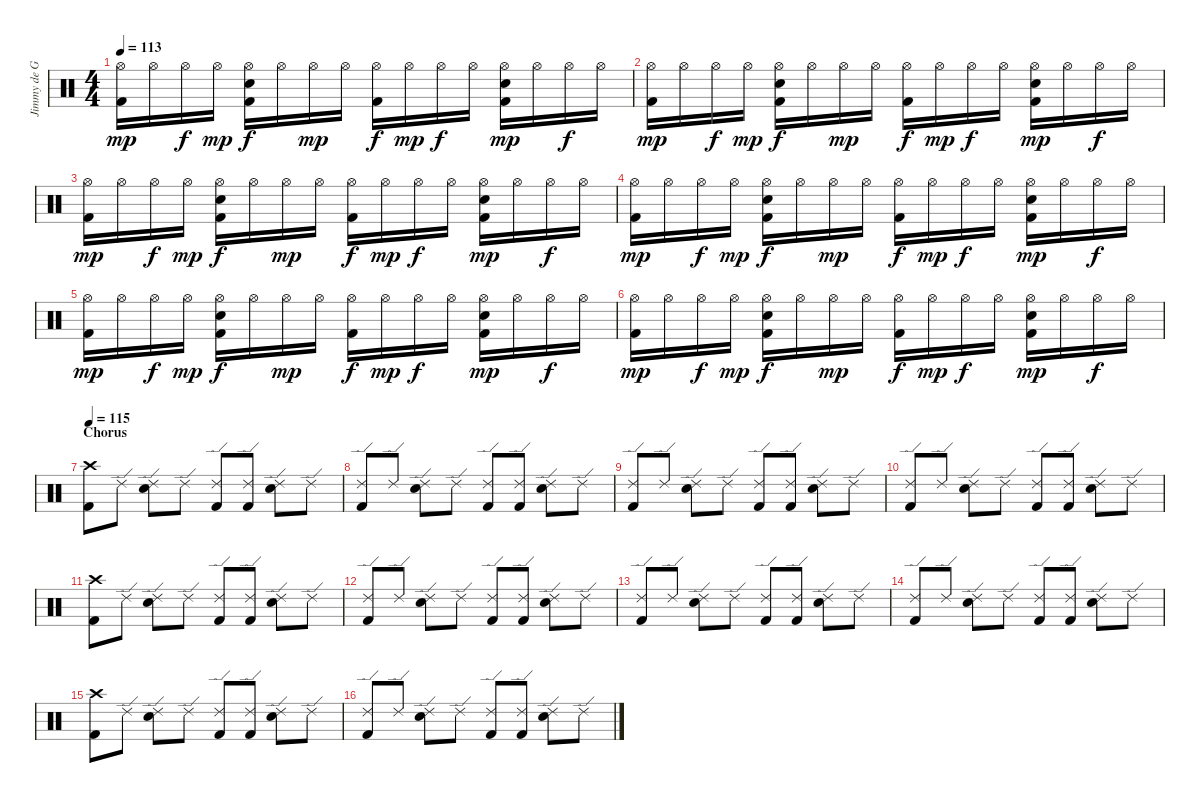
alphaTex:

\track ("Jimmy de Grasso" "Jimmy de G") {instrument percussion}
\staff {score}
\articulation defaults
\ts (4 4)
\tempo 113
\clef neutral
\ks c
("Hi-Hat (open)" "Kick (hit) 2").16{dy mp} "Hi-Hat (open)".16 "Hi-Hat (open)".16{dy f} "Hi-Hat (open)".16{dy mp} ("Hi-Hat (open)" "Snare (hit) 2" "Kick (hit) 2").16{dy f} "Hi-Hat (open)".16 "Hi-Hat (open)".16{dy mp} "Hi-Hat (open)".16 ("Hi-Hat (open)" "Kick (hit) 2").16{dy f} "Hi-Hat (open)".16{dy mp} "Hi-Hat (open)".16{dy f} "Hi-Hat (open)".16 ("Hi-Hat (open)" "Snare (hit) 2" "Kick (hit) 2").16{dy mp} "Hi-Hat (open)".16 "Hi-Hat (open)".16{dy f} "Hi-Hat (open)".16 |
("Hi-Hat (open)" "Kick (hit) 2").16{dy mp} "Hi-Hat (open)".16 "Hi-Hat (open)".16{dy f} "Hi-Hat (open)".16{dy mp} ("Hi-Hat (open)" "Snare (hit) 2" "Kick (hit) 2").16{dy f} "Hi-Hat (open)".16 "Hi-Hat (open)".16{dy mp} "Hi-Hat (open)".16 ("Hi-Hat (open)" "Kick (hit) 2").16{dy f} "Hi-Hat (open)".16{dy mp} "Hi-Hat (open)".16{dy f} "Hi-Hat (open)".16 ("Hi-Hat (open)" "Snare (hit) 2" "Kick (hit) 2").16{dy mp} "Hi-Hat (open)".16 "Hi-Hat (open)".16{dy f} "Hi-Hat (open)".16 |
("Hi-Hat (open)" "Kick (hit) 2").16{dy mp} "Hi-Hat (open)".16 "Hi-Hat (open)".16{dy f} "Hi-Hat (open)".16{dy mp} ("Hi-Hat (open)" "Snare (hit) 2" "Kick (hit) 2").16{dy f} "Hi-Hat (open)".16 "Hi-Hat (open)".16{dy mp} "Hi-Hat (open)".16 ("Hi-Hat (open)" "Kick (hit) 2").16{dy f} "Hi-Hat (open)".16{dy mp} "Hi-Hat (open)".16{dy f} "Hi-Hat (open)".16 ("Hi-Hat (open)" "Snare (hit) 2" "Kick (hit) 2").16{dy mp} "Hi-Hat (open)".16 "Hi-Hat (open)".16{dy f} "Hi-Hat (open)".16 |
("Hi-Hat (open)" "Kick (hit) 2").16{dy mp} "Hi-Hat (open)".16 "Hi-Hat (open)".16{dy f} "Hi-Hat (open)".16{dy mp} ("Hi-Hat (open)" "Snare (hit) 2" "Kick (hit) 2").16{dy f} "Hi-Hat (open)".16 "Hi-Hat (open)".16{dy mp} "Hi-Hat (open)".16 ("Hi-Hat (open)" "Kick (hit) 2").16{dy f} "Hi-Hat (open)".16{dy mp} "Hi-Hat (open)".16{dy f} "Hi-Hat (open)".16 ("Hi-Hat (open)" "Snare (hit) 2" "Kick (hit) 2").16{dy mp} "Hi-Hat (open)".16 "Hi-Hat (open)".16{dy f} "Hi-Hat (open)".16 |
("Hi-Hat (open)" "Kick (hit) 2").16{dy mp} "Hi-Hat (open)".16 "Hi-Hat (open)".16{dy f} "Hi-Hat (open)".16{dy mp} ("Hi-Hat (open)" "Snare (hit) 2" "Kick (hit) 2").16{dy f} "Hi-Hat (open)".16 "Hi-Hat (open)".16{dy mp} "Hi-Hat (open)".16 ("Hi-Hat (open)" "Kick (hit) 2").16{dy f} "Hi-Hat (open)".16{dy mp} "Hi-Hat (open)".16{dy f} "Hi-Hat (open)".16 ("Hi-Hat (open)" "Snare (hit) 2" "Kick (hit) 2").16{dy mp} "Hi-Hat (open)".16 "Hi-Hat (open)".16{dy f} "Hi-Hat (open)".16 |
("Hi-Hat (open)" "Kick (hit) 2").16{dy mp} "Hi-Hat (open)".16 "Hi-Hat (open)".16{dy f} "Hi-Hat (open)".16{dy mp} ("Hi-Hat (open)" "Snare (hit) 2" "Kick (hit) 2").16{dy f} "Hi-Hat (open)".16 "Hi-Hat (open)".16{dy mp} "Hi-Hat (open)".16 ("Hi-Hat (open)" "Kick (hit) 2").16{dy f} "Hi-Hat (open)".16{dy mp} "Hi-Hat (open)".16{dy f} "Hi-Hat (open)".16 ("Hi-Hat (open)" "Snare (hit) 2" "Kick (hit) 2").16{dy mp} "Hi-Hat (open)".16 "Hi-Hat (open)".16{dy f} "Hi-Hat (open)".16 |
\section ("" "Chorus")
\tempo 115
("Crash high (hit)" "Kick (hit) 2").8 "Ride (edge) 2".8 ("Ride (edge) 2" "Snare (hit) 2").8 "Ride (edge) 2".8 ("Ride (edge) 2" "Kick (hit) 2").8 ("Ride (edge) 2" "Kick (hit) 2").8 ("Ride (edge) 2" "Snare (hit) 2").8 "Ride (edge) 2".8 |
("Ride (edge) 2" "Kick (hit) 2").8 "Ride (edge) 2".8 ("Ride (edge) 2" "Snare (hit) 2").8 "Ride (edge) 2".8 ("Ride (edge) 2" "Kick (hit) 2").8 ("Ride (edge) 2" "Kick (hit) 2").8 ("Ride (edge) 2" "Snare (hit) 2").8 "Ride (edge) 2".8 |
("Ride (edge) 2" "Kick (hit) 2").8 "Ride (edge) 2".8 ("Ride (edge) 2" "Snare (hit) 2").8 "Ride (edge) 2".8 ("Ride (edge) 2" "Kick (hit) 2").8 ("Ride (edge) 2" "Kick (hit) 2").8 ("Ride (edge) 2" "Snare (hit) 2").8 "Ride (edge) 2".8 |
("Ride (edge) 2" "Kick (hit) 2").8 "Ride (edge) 2".8 ("Ride (edge) 2" "Snare (hit) 2").8 "Ride (edge) 2".8 ("Ride (edge) 2" "Kick (hit) 2").8 ("Ride (edge) 2" "Kick (hit) 2").8 ("Ride (edge) 2" "Snare (hit) 2").8 "Ride (edge) 2".8 |
("Crash high (hit)" "Kick (hit) 2").8 "Ride (edge) 2".8 ("Ride (edge) 2" "Snare (hit) 2").8 "Ride (edge) 2".8 ("Ride (edge) 2" "Kick (hit) 2").8 ("Ride (edge) 2" "Kick (hit) 2").8 ("Ride (edge) 2" "Snare (hit) 2").8 "Ride (edge) 2".8 |
("Ride (edge) 2" "Kick (hit) 2").8 "Ride (edge) 2".8 ("Ride (edge) 2" "Snare (hit) 2").8 "Ride (edge) 2".8 ("Ride (edge) 2" "Kick (hit) 2").8 ("Ride (edge) 2" "Kick (hit) 2").8 ("Ride (edge) 2" "Snare (hit) 2").8 "Ride (edge) 2".8 |
("Ride (edge) 2" "Kick (hit) 2").8 "Ride (edge) 2".8 ("Ride (edge) 2" "Snare (hit) 2").8 "Ride (edge) 2".8 ("Ride (edge) 2" "Kick (hit) 2").8 ("Ride (edge) 2" "Kick (hit) 2").8 ("Ride (edge) 2" "Snare (hit) 2").8 "Ride (edge) 2".8 |
("Ride (edge) 2" "Kick (hit) 2").8 "Ride (edge) 2".8 ("Ride (edge) 2" "Snare (hit) 2").8 "Ride (edge) 2".8 ("Ride (edge) 2" "Kick (hit) 2").8 ("Ride (edge) 2" "Kick (hit) 2").8 ("Ride (edge) 2" "Snare (hit) 2").8 "Ride (edge) 2".8 |
("Crash high (hit)" "Kick (hit) 2").8 "Ride (edge) 2".8 ("Ride (edge) 2" "Snare (hit) 2").8 "Ride (edge) 2".8 ("Ride (edge) 2" "Kick (hit) 2").8 ("Ride (edge) 2" "Kick (hit) 2").8 ("Ride (edge) 2" "Snare (hit) 2").8 "Ride (edge) 2".8 |
("Ride (edge) 2" "Kick (hit) 2").8 "Ride (edge) 2".8 ("Ride (edge) 2" "Snare (hit) 2").8 "Ride (edge) 2".8 ("Ride (edge) 2" "Kick (hit) 2").8 ("Ride (edge) 2" "Kick (hit) 2").8 ("Ride (edge) 2" "Snare (hit) 2").8 "Ride (edge) 2".8
